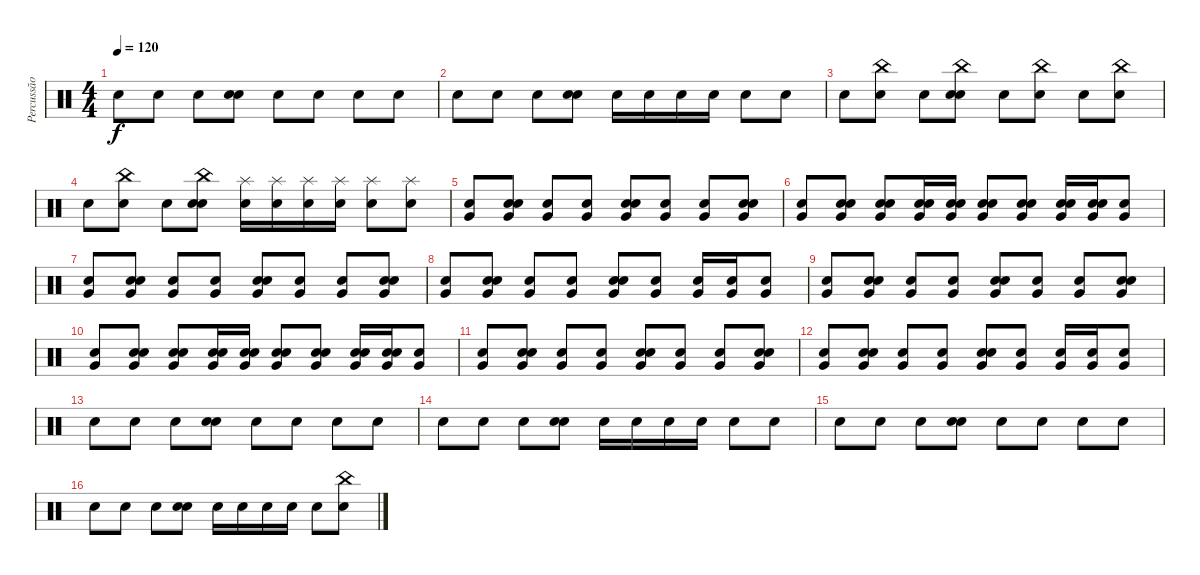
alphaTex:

\track ("Percussão" "Percussão") {instrument percussion}
\staff {score}
\articulation defaults
\ts (4 4)
\tempo 120
\clef neutral
\ks c "Snare (hit) 2".8{dy f} "Snare (hit) 2".8 "Electric Snare (hit)".8
("Snare (hit) 2" "Electric Snare (hit)").8 "Snare (hit) 2".8 "Snare (hit) 2".8 "Electric Snare (hit)".8 "Electric Snare (hit)".8 |
"Snare (hit) 2".8 "Snare (hit) 2".8 "Electric Snare (hit)".8 ("Snare (hit) 2" "Electric Snare (hit)").8 "Snare (hit) 2".16 "Snare (hit) 2".16 "Snare (hit) 2".16 "Snare (hit) 2".16 "Electric Snare (hit)".8 "Electric Snare (hit)".8 |
"Snare (hit) 2".8 ("China (hit)" "Snare (hit) 2").8 "Electric Snare (hit)".8 ("China (hit)" "Snare (hit) 2" "Electric Snare (hit)").8 "Snare (hit) 2".8 ("China (hit)" "Snare (hit) 2").8 "Electric Snare (hit)".8 ("China (hit)" "Electric Snare (hit)").8 |
"Snare (hit) 2".8 ("China (hit)" "Snare (hit) 2").8 "Electric Snare (hit)".8 ("China (hit)" "Snare (hit) 2" "Electric Snare (hit)").8 ("Splash (hit)" "Snare (hit) 2").16 ("Splash (hit)" "Snare (hit) 2").16 ("Splash (hit)" "Snare (hit) 2").16 ("Splash (hit)" "Snare (hit) 2").16 ("Splash (hit)" "Electric Snare (hit)").8 ("Splash (hit)" "Electric Snare (hit)").8 |
("Snare (hit) 2" "Very Low Tom (hit)").8 ("Snare (hit) 2" "Electric Snare (hit)" "Very Low Tom (hit)").8 ("Snare (hit) 2" "Very Low Tom (hit)").8 ("Snare (hit) 2" "Very Low Tom (hit)").8 ("Snare (hit) 2" "Electric Snare (hit)" "Very Low Tom (hit)").8 ("Snare (hit) 2" "Very Low Tom (hit)").8 ("Snare (hit) 2" "Very Low Tom (hit)").8 ("Snare (hit) 2" "Electric Snare (hit)" "Very Low Tom (hit)").8 |
("Very Low Tom (hit)" "Snare (hit) 2").8 ("Very Low Tom (hit)" "Snare (hit) 2" "Electric Snare (hit)").8 ("Very Low Tom (hit)" "Snare (hit) 2" "Electric Snare (hit)").8 ("Very Low Tom (hit)" "Snare (hit) 2" "Electric Snare (hit)").16 ("Very Low Tom (hit)" "Snare (hit) 2" "Electric Snare (hit)").16 ("Very Low Tom (hit)" "Snare (hit) 2" "Electric Snare (hit)").8 ("Very Low Tom (hit)" "Snare (hit) 2" "Electric Snare (hit)").8 ("Very Low Tom (hit)" "Snare (hit) 2" "Electric Snare (hit)").16 ("Very Low Tom (hit)" "Snare (hit) 2" "Electric Snare (hit)").16 ("Very Low Tom (hit)" "Electric Snare (hit)").8 |
("Snare (hit) 2" "Very Low Tom (hit)").8 ("Snare (hit) 2" "Electric Snare (hit)" "Very Low Tom (hit)").8 ("Snare (hit) 2" "Very Low Tom (hit)").8 ("Snare (hit) 2" "Very Low Tom (hit)").8 ("Snare (hit) 2" "Electric Snare (hit)" "Very Low Tom (hit)").8 ("Snare (hit) 2" "Very Low Tom (hit)").8 ("Snare (hit) 2" "Very Low Tom (hit)").8 ("Snare (hit) 2" "Electric Snare (hit)" "Very Low Tom (hit)").8 |
("Very Low Tom (hit)" "Snare (hit) 2").8 ("Very Low Tom (hit)" "Snare (hit) 2" "Electric Snare (hit)").8 ("Very Low Tom (hit)" "Snare (hit) 2").8 ("Very Low Tom (hit)" "Snare (hit) 2").8 ("Very Low Tom (hit)" "Snare (hit) 2" "Electric Snare (hit)").8 ("Very Low Tom (hit)" "Snare (hit) 2").8 ("Very Low Tom (hit)" "Snare (hit) 2").16 ("Very Low Tom (hit)" "Snare (hit) 2").16 ("Very Low Tom (hit)" "Electric Snare (hit)").8 |
("Snare (hit) 2" "Very Low Tom (hit)").8 ("Snare (hit) 2" "Electric Snare (hit)" "Very Low Tom (hit)").8 ("Snare (hit) 2" "Very Low Tom (hit)").8 ("Snare (hit) 2" "Very Low Tom (hit)").8 ("Snare (hit) 2" "Electric Snare (hit)" "Very Low Tom (hit)").8 ("Snare (hit) 2" "Very Low Tom (hit)").8 ("Snare (hit) 2" "Very Low Tom (hit)").8 ("Snare (hit) 2" "Electric Snare (hit)" "Very Low Tom (hit)").8 |
("Very Low Tom (hit)" "Snare (hit) 2").8 ("Very Low Tom (hit)" "Snare (hit) 2" "Electric Snare (hit)").8 ("Very Low Tom (hit)" "Snare (hit) 2" "Electric Snare (hit)").8 ("Very Low Tom (hit)" "Snare (hit) 2" "Electric Snare (hit)").16 ("Very Low Tom (hit)" "Snare (hit) 2" "Electric Snare (hit)").16 ("Very Low Tom (hit)" "Snare (hit) 2" "Electric Snare (hit)").8 ("Very Low Tom (hit)" "Snare (hit) 2" "Electric Snare (hit)").8 ("Very Low Tom (hit)" "Snare (hit) 2" "Electric Snare (hit)").16 ("Very Low Tom (hit)" "Snare (hit) 2" "Electric Snare (hit)").16 ("Very Low Tom (hit)" "Electric Snare (hit)").8 |
("Snare (hit) 2" "Very Low Tom (hit)").8 ("Snare (hit) 2" "Electric Snare (hit)" "Very Low Tom (hit)").8 ("Snare (hit) 2" "Very Low Tom (hit)").8 ("Snare (hit) 2" "Very Low Tom (hit)").8 ("Snare (hit) 2" "Electric Snare (hit)" "Very Low Tom (hit)").8 ("Snare (hit) 2" "Very Low Tom (hit)").8 ("Snare (hit) 2" "Very Low Tom (hit)").8 ("Snare (hit) 2" "Electric Snare (hit)" "Very Low Tom (hit)").8 |
("Very Low Tom (hit)" "Snare (hit) 2").8 ("Very Low Tom (hit)" "Snare (hit) 2" "Electric Snare (hit)").8 ("Very Low Tom (hit)" "Snare (hit) 2").8 ("Very Low Tom (hit)" "Snare (hit) 2").8 ("Very Low Tom (hit)" "Snare (hit) 2" "Electric Snare (hit)").8 ("Very Low Tom (hit)" "Snare (hit) 2").8 ("Very Low Tom (hit)" "Snare (hit) 2").16 ("Very Low Tom (hit)" "Snare (hit) 2").16 ("Very Low Tom (hit)" "Electric Snare (hit)").8 |
"Snare (hit) 2".8 "Snare (hit) 2".8 "Electric Snare (hit)".8 ("Snare (hit) 2" "Electric Snare (hit)").8 "Snare (hit) 2".8 "Snare (hit) 2".8 "Electric Snare (hit)".8 "Electric Snare (hit)".8 |
"Snare (hit) 2".8 "Snare (hit) 2".8 "Electric Snare (hit)".8 ("Snare (hit) 2" "Electric Snare (hit)").8 "Snare (hit) 2".16 "Snare (hit) 2".16 "Snare (hit) 2".16 "Snare (hit) 2".16 "Electric Snare (hit)".8 "Electric Snare (hit)".8 |
"Snare (hit) 2".8 "Snare (hit) 2".8 "Electric Snare (hit)".8 ("Snare (hit) 2" "Electric Snare (hit)").8 "Snare (hit) 2".8 "Snare (hit) 2".8 "Electric Snare (hit)".8 "Electric Snare (hit)".8 |
"Snare (hit) 2".8 "Snare (hit) 2".8 "Electric Snare (hit)".8 ("Snare (hit) 2" "Electric Snare (hit)").8 "Snare (hit) 2".16 "Snare (hit) 2".16 "Snare (hit) 2".16 "Snare (hit) 2".16 "Electric Snare (hit)".8 ("China (hit)" "Electric Snare (hit)").8
